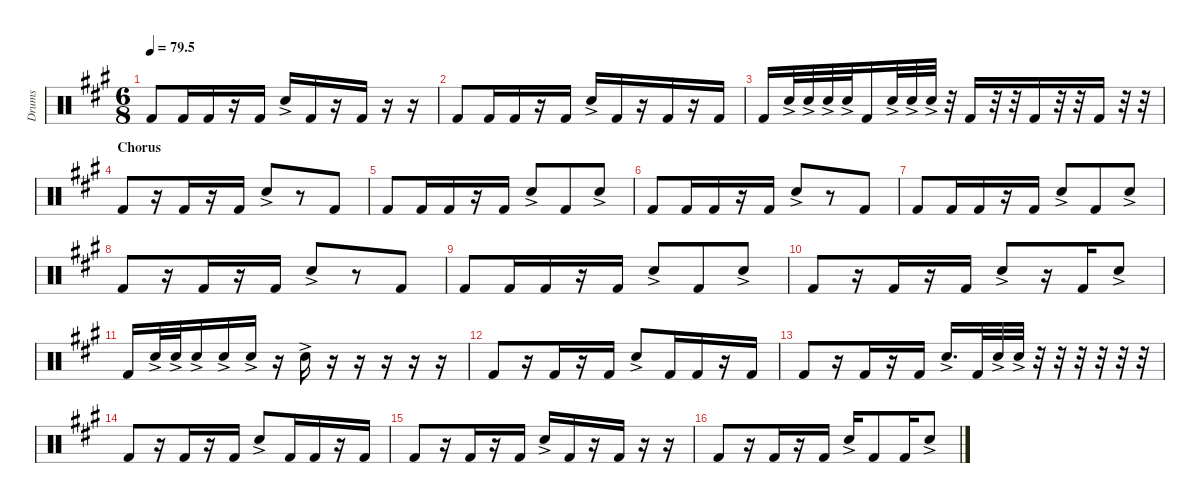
\defaultSystemsLayout 4
\hideDynamics
\bracketExtendMode nobrackets
\otherSystemsTrackNameOrientation horizontal
\track ("F&S" "Drums") {instrument percussion}
\staff {score}
\articulation defaults
\ts (6 8)
\tempo
79.5
\accidentals auto
\clef neutral
\ottava regular
\simile none
\scale
0.333333
\ks a "Kick (hit) 2"{acc forcenatural}.8{dy f} "Kick (hit) 2"{acc forcenatural}.16 "Kick (hit) 2"{acc forcenatural}.16
r.16 "Kick (hit) 2"{acc forcenatural}.16 "Snare (hit) 2"{ac acc forcenatural}.16 "Kick (hit) 2"{acc forcenatural}.16 r.16 "Kick (hit) 2"{acc forcenatural}.16 r.16 r.16 |
\scale
0.333333 "Kick (hit) 2"{acc forcenatural}.8 "Kick (hit) 2"{acc forcenatural}.16 "Kick (hit) 2"{acc forcenatural}.16 r.16 "Kick (hit) 2"{acc forcenatural}.16 "Snare (hit) 2"{ac acc forcenatural}.16 "Kick (hit) 2"{acc forcenatural}.16 r.16 "Kick (hit) 2"{acc forcenatural}.16 r.16 "Kick (hit) 2"{acc forcenatural}.16 |
\scale
0.333333 "Kick (hit) 2"{acc forcenatural}.16 "Snare (hit) 2"{ac acc forcenatural}.32 "Snare (hit) 2"{ac acc forcenatural}.32 "Snare (hit) 2"{ac acc forcenatural}.32 "Snare (hit) 2"{ac acc forcenatural}.32 "Kick (hit) 2"{acc forcenatural}.16 "Snare (hit) 2"{ac acc forcenatural}.32 "Snare (hit) 2"{ac acc forcenatural}.32 "Snare (hit) 2"{ac acc forcenatural}.32 r.32 "Kick (hit) 2"{acc forcenatural}.16 r.32 r.32 "Kick (hit) 2"{acc forcenatural}.16 r.32 r.32 "Kick (hit) 2"{acc forcenatural}.16 r.32 r.32 |
\section ("" "Chorus")
\scale
0.333333 "Kick (hit) 2"{acc forcenatural}.8 r.16 "Kick (hit) 2"{acc forcenatural}.16 r.16 "Kick (hit) 2"{acc forcenatural}.16 "Snare (hit) 2"{ac acc forcenatural}.8 r.8 "Kick (hit) 2"{acc forcenatural}.8 |
\scale
0.333333 "Kick (hit) 2"{acc forcenatural}.8 "Kick (hit) 2"{acc forcenatural}.16 "Kick (hit) 2"{acc forcenatural}.16 r.16 "Kick (hit) 2"{acc forcenatural}.16 "Snare (hit) 2"{ac acc forcenatural}.8 "Kick (hit) 2"{acc forcenatural}.8 "Snare (hit) 2"{ac acc forcenatural}.8 |
\scale
0.333333 "Kick (hit) 2"{acc forcenatural}.8 "Kick (hit) 2"{acc forcenatural}.16 "Kick (hit) 2"{acc forcenatural}.16 r.16 "Kick (hit) 2"{acc forcenatural}.16 "Snare (hit) 2"{ac acc forcenatural}.8 r.8 "Kick (hit) 2"{acc forcenatural}.8 |
\scale
0.333333 "Kick (hit) 2"{acc forcenatural}.8 "Kick (hit) 2"{acc forcenatural}.16 "Kick (hit) 2"{acc forcenatural}.16 r.16 "Kick (hit) 2"{acc forcenatural}.16 "Snare (hit) 2"{ac acc forcenatural}.8 "Kick (hit) 2"{acc forcenatural}.8 "Snare (hit) 2"{ac acc forcenatural}.8 |
\scale
0.333333 "Kick (hit) 2"{acc forcenatural}.8 r.16 "Kick (hit) 2"{acc forcenatural}.16 r.16 "Kick (hit) 2"{acc forcenatural}.16 "Snare (hit) 2"{ac acc forcenatural}.8 r.8 "Kick (hit) 2"{acc forcenatural}.8 |
\scale
0.333333 "Kick (hit) 2"{acc forcenatural}.8 "Kick (hit) 2"{acc forcenatural}.16 "Kick (hit) 2"{acc forcenatural}.16 r.16 "Kick (hit) 2"{acc forcenatural}.16 "Snare (hit) 2"{ac acc forcenatural}.8 "Kick (hit) 2"{acc forcenatural}.8 "Snare (hit) 2"{ac acc forcenatural}.8 |
\scale
0.333333 "Kick (hit) 2"{acc forcenatural}.8 r.16 "Kick (hit) 2"{acc forcenatural}.16 r.16 "Kick (hit) 2"{acc forcenatural}.16 "Snare (hit) 2"{ac acc forcenatural}.8 r.16 "Kick (hit) 2"{acc forcenatural}.16 "Snare (hit) 2"{ac acc forcenatural}.8 |
\scale
0.333333 "Kick (hit) 2"{acc forcenatural}.16 "Snare (hit) 2"{ac acc forcenatural}.32 "Snare (hit) 2"{ac acc forcenatural}.32 "Snare (hit) 2"{ac acc forcenatural}.16 "Snare (hit) 2"{ac acc forcenatural}.16 "Snare (hit) 2"{ac acc forcenatural}.16 r.16 "Snare (hit) 2"{ac acc forcenatural}.16 r.16 r.16 r.16 r.16 r.16 |
\scale
0.333333 "Kick (hit) 2"{acc forcenatural}.8 r.16 "Kick (hit) 2"{acc forcenatural}.16 r.16 "Kick (hit) 2"{acc forcenatural}.16 "Snare (hit) 2"{ac acc forcenatural}.8 "Kick (hit) 2"{acc forcenatural}.16 "Kick (hit) 2"{acc forcenatural}.16 r.16 "Kick (hit) 2"{acc forcenatural}.16 |
\scale
0.333333 "Kick (hit) 2"{acc forcenatural}.8 r.16 "Kick (hit) 2"{acc forcenatural}.16 r.16 "Kick (hit) 2"{acc forcenatural}.16 "Snare (hit) 2"{ac acc forcenatural}.16{d} "Kick (hit) 2"{acc forcenatural}.32 "Snare (hit) 2"{ac acc forcenatural}.32 "Snare (hit) 2"{ac acc forcenatural}.32 r.32 r.32 r.32 r.32 r.32 r.32 |
\scale
0.333333 "Kick (hit) 2"{acc forcenatural}.8 r.16 "Kick (hit) 2"{acc forcenatural}.16 r.16 "Kick (hit) 2"{acc forcenatural}.16 "Snare (hit) 2"{ac acc forcenatural}.8 "Kick (hit) 2"{acc forcenatural}.16 "Kick (hit) 2"{acc forcenatural}.16 r.16 "Kick (hit) 2"{acc forcenatural}.16 |
\scale
0.333333 "Kick (hit) 2"{acc forcenatural}.8 r.16 "Kick (hit) 2"{acc forcenatural}.16 r.16 "Kick (hit) 2"{acc forcenatural}.16 "Snare (hit) 2"{ac acc forcenatural}.16 "Kick (hit) 2"{acc forcenatural}.16 r.16 "Kick (hit) 2"{acc forcenatural}.16 r.16 r.16 |
\scale
0.333333 "Kick (hit) 2"{acc forcenatural}.8 r.16 "Kick (hit) 2"{acc forcenatural}.16 r.16 "Kick (hit) 2"{acc forcenatural}.16 "Snare (hit) 2"{ac acc forcenatural}.16 "Kick (hit) 2"{acc forcenatural}.8 "Kick (hit) 2"{acc forcenatural}.16 "Snare (hit) 2"{ac acc forcenatural}.8
